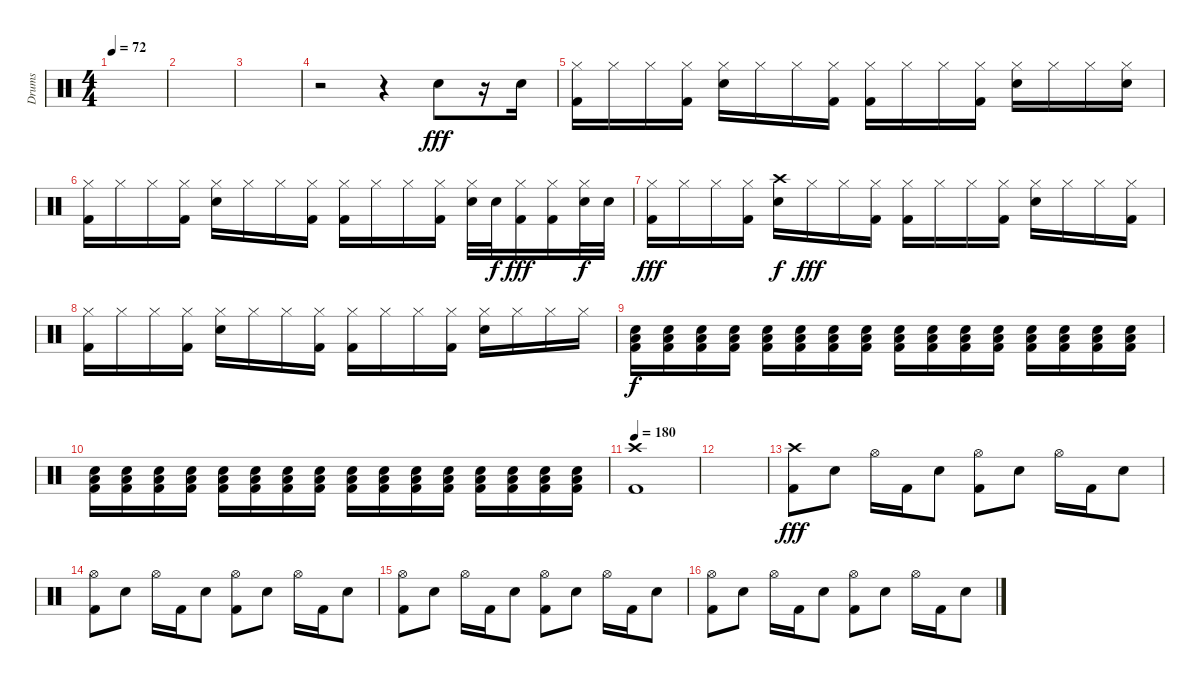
\track ("Drums" "Drums") {instrument percussion}
\staff {score}
\articulation defaults
\ts (4 4)
\tempo 72
\clef neutral
\ks c
|
|
|
r.2 r.4 "Snare (hit) 2".8{dy fff} r.16 "Snare (hit) 2".16 |
("Hi-Hat (closed)" "Kick (hit) 2").16 "Hi-Hat (closed)".16 "Hi-Hat (closed)".16 ("Hi-Hat (closed)" "Kick (hit) 2").16 ("Hi-Hat (closed)" "Snare (hit) 2").16 "Hi-Hat (closed)".16 "Hi-Hat (closed)".16 ("Hi-Hat (closed)" "Kick (hit) 2").16 ("Hi-Hat (closed)" "Kick (hit) 2").16 "Hi-Hat (closed)".16 "Hi-Hat (closed)".16 ("Hi-Hat (closed)" "Kick (hit) 2").16 ("Hi-Hat (closed)" "Snare (hit) 2").16 "Hi-Hat (closed)".16 "Hi-Hat (closed)".16 ("Hi-Hat (closed)" "Snare (hit) 2").16 |
("Hi-Hat (closed)" "Kick (hit) 2").16 "Hi-Hat (closed)".16 "Hi-Hat (closed)".16 ("Hi-Hat (closed)" "Kick (hit) 2").16 ("Hi-Hat (closed)" "Snare (hit) 2").16 "Hi-Hat (closed)".16 "Hi-Hat (closed)".16 ("Hi-Hat (closed)" "Kick (hit) 2").16 ("Hi-Hat (closed)" "Kick (hit) 2").16 "Hi-Hat (closed)".16 "Hi-Hat (closed)".16 ("Hi-Hat (closed)" "Kick (hit) 2").16 ("Hi-Hat (closed)" "Snare (hit) 2").32 "Snare (hit) 2".32{dy f} ("Hi-Hat (closed)" "Kick (hit) 2").16{dy fff} ("Hi-Hat (closed)" "Kick (hit) 2").16 ("Hi-Hat (closed)" "Snare (hit) 2").32{dy f} "Snare (hit) 2".32 |
("Hi-Hat (closed)" "Kick (hit) 2").16{dy fff} "Hi-Hat (closed)".16 "Hi-Hat (closed)".16 ("Hi-Hat (closed)" "Kick (hit) 2").16 ("Crash high (hit)" "Snare (hit) 2").16{dy f} "Hi-Hat (closed)".16{dy fff} "Hi-Hat (closed)".16 ("Hi-Hat (closed)" "Kick (hit) 2").16 ("Hi-Hat (closed)" "Kick (hit) 2").16 "Hi-Hat (closed)".16 "Hi-Hat (closed)".16 ("Hi-Hat (closed)" "Kick (hit) 2").16 ("Hi-Hat (closed)" "Snare (hit) 2").16 "Hi-Hat (closed)".16 "Hi-Hat (closed)".16 ("Hi-Hat (closed)" "Kick (hit) 2").16 |
("Hi-Hat (closed)" "Kick (hit) 2").16 "Hi-Hat (closed)".16 "Hi-Hat (closed)".16 ("Hi-Hat (closed)" "Kick (hit) 2").16 ("Hi-Hat (closed)" "Snare (hit) 2").16 "Hi-Hat (closed)".16 "Hi-Hat (closed)".16 ("Hi-Hat (closed)" "Kick (hit) 2").16 ("Hi-Hat (closed)" "Kick (hit) 2").16 "Hi-Hat (closed)".16 "Hi-Hat (closed)".16 ("Hi-Hat (closed)" "Kick (hit) 2").16 ("Hi-Hat (closed)" "Snare (hit) 2").16 "Hi-Hat (closed)".16 "Hi-Hat (closed)".16 "Hi-Hat (closed)".16 |
("Low Floor Tom (hit)" "Snare (hit) 2" "Kick (hit) 2").16{dy f volume 6} ("Low Floor Tom (hit)" "Snare (hit) 2" "Kick (hit) 2").16{volume 14} ("Low Floor Tom (hit)" "Snare (hit) 2" "Kick (hit) 2").16 ("Low Floor Tom (hit)" "Snare (hit) 2" "Kick (hit) 2").16 ("Low Floor Tom (hit)" "Snare (hit) 2" "Kick (hit) 2").16 ("Low Floor Tom (hit)" "Snare (hit) 2" "Kick (hit) 2").16 ("Low Floor Tom (hit)" "Snare (hit) 2" "Kick (hit) 2").16 ("Low Floor Tom (hit)" "Snare (hit) 2" "Kick (hit) 2").16 ("Low Floor Tom (hit)" "Snare (hit) 2" "Kick (hit) 2").16 ("Low Floor Tom (hit)" "Snare (hit) 2" "Kick (hit) 2").16 ("Low Floor Tom (hit)" "Snare (hit) 2" "Kick (hit) 2").16 ("Low Floor Tom (hit)" "Snare (hit) 2" "Kick (hit) 2").16 ("Low Floor Tom (hit)" "Snare (hit) 2" "Kick (hit) 2").16 ("Low Floor Tom (hit)" "Snare (hit) 2" "Kick (hit) 2").16 ("Low Floor Tom (hit)" "Snare (hit) 2" "Kick (hit) 2").16 ("Low Floor Tom (hit)" "Snare (hit) 2" "Kick (hit) 2").16 |
("Low Floor Tom (hit)" "Snare (hit) 2" "Kick (hit) 2").16 ("Low Floor Tom (hit)" "Snare (hit) 2" "Kick (hit) 2").16 ("Low Floor Tom (hit)" "Snare (hit) 2" "Kick (hit) 2").16 ("Low Floor Tom (hit)" "Snare (hit) 2" "Kick (hit) 2").16 ("Low Floor Tom (hit)" "Snare (hit) 2" "Kick (hit) 2").16 ("Low Floor Tom (hit)" "Snare (hit) 2" "Kick (hit) 2").16 ("Low Floor Tom (hit)" "Snare (hit) 2" "Kick (hit) 2").16 ("Low Floor Tom (hit)" "Snare (hit) 2" "Kick (hit) 2").16 ("Low Floor Tom (hit)" "Snare (hit) 2" "Kick (hit) 2").16 ("Low Floor Tom (hit)" "Snare (hit) 2" "Kick (hit) 2").16 ("Low Floor Tom (hit)" "Snare (hit) 2" "Kick (hit) 2").16 ("Low Floor Tom (hit)" "Snare (hit) 2" "Kick (hit) 2").16 ("Low Floor Tom (hit)" "Snare (hit) 2" "Kick (hit) 2").16 ("Low Floor Tom (hit)" "Snare (hit) 2" "Kick (hit) 2").16 ("Low Floor Tom (hit)" "Snare (hit) 2" "Kick (hit) 2").16 ("Low Floor Tom (hit)" "Snare (hit) 2" "Kick (hit) 2").16 |
\tempo 180
("Crash high (hit)" "Kick (hit) 2").1 |
|
("Crash high (hit)" "Kick (hit) 2").8{dy fff} "Snare (hit) 2".8 "Hi-Hat (open)".16 "Kick (hit) 2".16 "Snare (hit) 2".8 ("Hi-Hat (open)" "Kick (hit) 2").8 "Snare (hit) 2".8 "Hi-Hat (open)".16 "Kick (hit) 2".16 "Snare (hit) 2".8 |
("Hi-Hat (open)" "Kick (hit) 2").8 "Snare (hit) 2".8 "Hi-Hat (open)".16 "Kick (hit) 2".16 "Snare (hit) 2".8 ("Hi-Hat (open)" "Kick (hit) 2").8 "Snare (hit) 2".8 "Hi-Hat (open)".16 "Kick (hit) 2".16 "Snare (hit) 2".8 |
("Hi-Hat (open)" "Kick (hit) 2").8 "Snare (hit) 2".8 "Hi-Hat (open)".16 "Kick (hit) 2".16 "Snare (hit) 2".8 ("Hi-Hat (open)" "Kick (hit) 2").8 "Snare (hit) 2".8 "Hi-Hat (open)".16 "Kick (hit) 2".16 "Snare (hit) 2".8 |
("Hi-Hat (open)" "Kick (hit) 2").8 "Snare (hit) 2".8 "Hi-Hat (open)".16 "Kick (hit) 2".16 "Snare (hit) 2".8 ("Hi-Hat (open)" "Kick (hit) 2").8 "Snare (hit) 2".8 "Hi-Hat (open)".16 "Kick (hit) 2".16 "Snare (hit) 2".8
